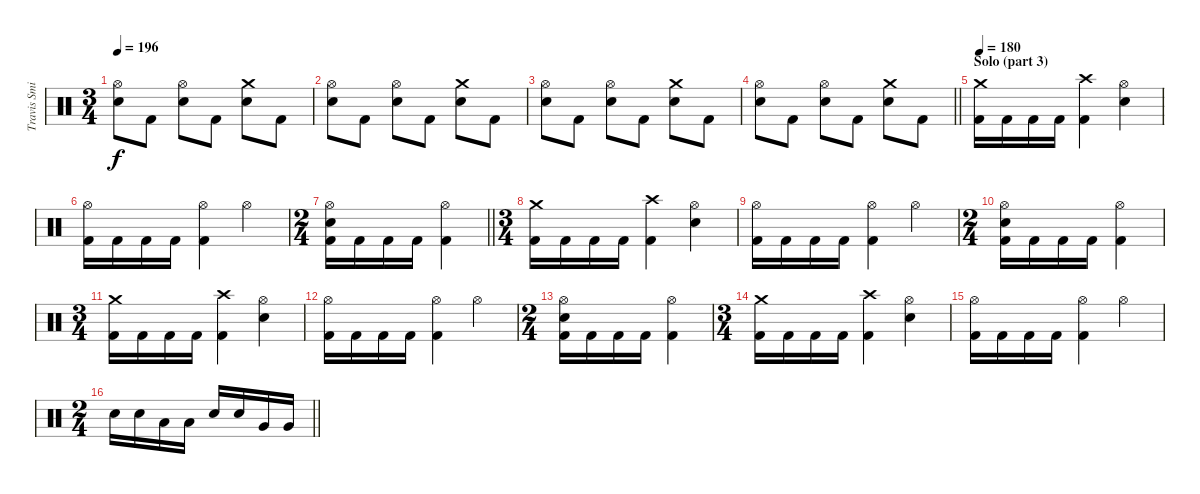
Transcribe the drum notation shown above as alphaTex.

\track ("Travis Smith" "Travis Smi") {instrument percussion}
\staff {score}
\articulation defaults
\ts (3 4)
\tempo 196
\clef neutral
\ks c
("Hi-Hat (open)" "Electric Snare (hit)").8{dy f} "Kick (hit) 2".8 ("Hi-Hat (open)" "Electric Snare (hit)").8 "Kick (hit) 2".8 ("Crash medium (hit)" "Electric Snare (hit)").8 "Kick (hit) 2".8 |
("Hi-Hat (open)" "Electric Snare (hit)").8 "Kick (hit) 2".8 ("Hi-Hat (open)" "Electric Snare (hit)").8 "Kick (hit) 2".8 ("Crash medium (hit)" "Electric Snare (hit)").8 "Kick (hit) 2".8 |
("Hi-Hat (open)" "Electric Snare (hit)").8 "Kick (hit) 2".8 ("Hi-Hat (open)" "Electric Snare (hit)").8 "Kick (hit) 2".8 ("Crash medium (hit)" "Electric Snare (hit)").8 "Kick (hit) 2".8 |
\barLineRight lightlight
("Hi-Hat (open)" "Electric Snare (hit)").8 "Kick (hit) 2".8 ("Hi-Hat (open)" "Electric Snare (hit)").8 "Kick (hit) 2".8 ("Crash medium (hit)" "Electric Snare (hit)").8 "Kick (hit) 2".8 |
\section ("" "Solo (part 3)")
\tempo 180
("Crash medium (hit)" "Kick (hit) 2").16 "Kick (hit) 2".16 "Kick (hit) 2".16 "Kick (hit) 2".16 ("Crash high (hit)" "Kick (hit) 2").4 ("Hi-Hat (open)" "Electric Snare (hit)").4 |
("Hi-Hat (open)" "Kick (hit) 2").16 "Kick (hit) 2".16 "Kick (hit) 2".16 "Kick (hit) 2".16 ("Hi-Hat (open)" "Kick (hit) 2").4 "Hi-Hat (open)".4 |
\ts (2 4)
\barLineRight lightlight
("Hi-Hat (open)" "Electric Snare (hit)" "Kick (hit) 2").16 "Kick (hit) 2".16 "Kick (hit) 2".16 "Kick (hit) 2".16 ("Hi-Hat (open)" "Kick (hit) 2").4 |
\ts (3 4)
\section ("" "")
("Crash medium (hit)" "Kick (hit) 2").16 "Kick (hit) 2".16 "Kick (hit) 2".16 "Kick (hit) 2".16 ("Crash high (hit)" "Kick (hit) 2").4 ("Hi-Hat (open)" "Electric Snare (hit)").4 |
("Hi-Hat (open)" "Kick (hit) 2").16 "Kick (hit) 2".16 "Kick (hit) 2".16 "Kick (hit) 2".16 ("Hi-Hat (open)" "Kick (hit) 2").4 "Hi-Hat (open)".4 |
\ts (2 4)
("Hi-Hat (open)" "Electric Snare (hit)" "Kick (hit) 2").16 "Kick (hit) 2".16 "Kick (hit) 2".16 "Kick (hit) 2".16 ("Hi-Hat (open)" "Kick (hit) 2").4 |
\ts (3 4)
("Crash medium (hit)" "Kick (hit) 2").16 "Kick (hit) 2".16 "Kick (hit) 2".16 "Kick (hit) 2".16 ("Crash high (hit)" "Kick (hit) 2").4 ("Hi-Hat (open)" "Electric Snare (hit)").4 |
("Hi-Hat (open)" "Kick (hit) 2").16 "Kick (hit) 2".16 "Kick (hit) 2".16 "Kick (hit) 2".16 ("Hi-Hat (open)" "Kick (hit) 2").4 "Hi-Hat (open)".4 |
\ts (2 4)
("Hi-Hat (open)" "Electric Snare (hit)" "Kick (hit) 2").16 "Kick (hit) 2".16 "Kick (hit) 2".16 "Kick (hit) 2".16 ("Hi-Hat (open)" "Kick (hit) 2").4 |
\ts (3 4)
("Crash medium (hit)" "Kick (hit) 2").16 "Kick (hit) 2".16 "Kick (hit) 2".16 "Kick (hit) 2".16 ("Crash high (hit)" "Kick (hit) 2").4 ("Hi-Hat (open)" "Electric Snare (hit)").4 |
("Hi-Hat (open)" "Kick (hit) 2").16 "Kick (hit) 2".16 "Kick (hit) 2".16 "Kick (hit) 2".16 ("Hi-Hat (open)" "Kick (hit) 2").4 "Hi-Hat (open)".4 |
\ts (2 4)
\barLineRight lightlight "Electric Snare (hit)".16 "Electric Snare (hit)".16 "Low Tom (hit)".16 "Low Tom (hit)".16 "Electric Snare (hit)".16 "Electric Snare (hit)".16 "Very Low Tom (hit)".16 "Very Low Tom (hit)".16
